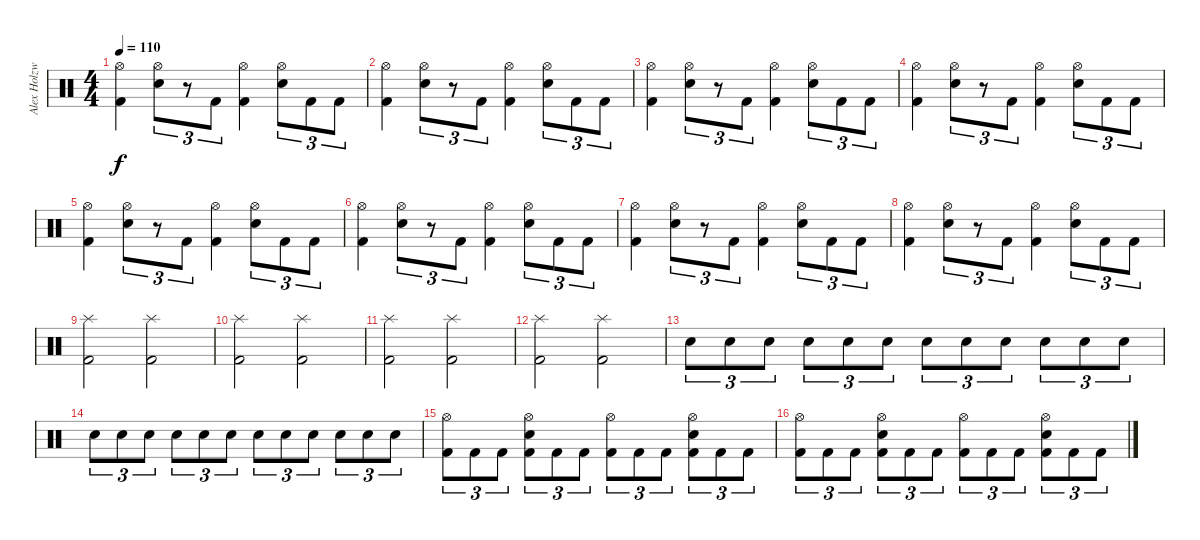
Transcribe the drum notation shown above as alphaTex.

\track ("Alex Holzwarth" "Alex Holzw") {instrument percussion}
\staff {score}
\articulation defaults
\ts (4 4)
\tempo 110
\clef neutral
\ks c
("Hi-Hat (open)" "Kick (hit) 2").4{dy f} ("Hi-Hat (open)" "Snare (hit) 2").8{tu (3 2)} r.8{tu (3 2)} "Kick (hit) 2".8{tu (3 2)} ("Hi-Hat (open)" "Kick (hit) 2").4 ("Hi-Hat (open)" "Snare (hit) 2").8{tu (3 2)} "Kick (hit) 2".8{tu (3 2)} "Kick (hit) 2".8{tu (3 2)} |
("Hi-Hat (open)" "Kick (hit) 2").4 ("Hi-Hat (open)" "Snare (hit) 2").8{tu (3 2)} r.8{tu (3 2)} "Kick (hit) 2".8{tu (3 2)} ("Hi-Hat (open)" "Kick (hit) 2").4 ("Hi-Hat (open)" "Snare (hit) 2").8{tu (3 2)} "Kick (hit) 2".8{tu (3 2)} "Kick (hit) 2".8{tu (3 2)} |
("Hi-Hat (open)" "Kick (hit) 2").4 ("Hi-Hat (open)" "Snare (hit) 2").8{tu (3 2)} r.8{tu (3 2)} "Kick (hit) 2".8{tu (3 2)} ("Hi-Hat (open)" "Kick (hit) 2").4 ("Hi-Hat (open)" "Snare (hit) 2").8{tu (3 2)} "Kick (hit) 2".8{tu (3 2)} "Kick (hit) 2".8{tu (3 2)} |
("Hi-Hat (open)" "Kick (hit) 2").4 ("Hi-Hat (open)" "Snare (hit) 2").8{tu (3 2)} r.8{tu (3 2)} "Kick (hit) 2".8{tu (3 2)} ("Hi-Hat (open)" "Kick (hit) 2").4 ("Hi-Hat (open)" "Snare (hit) 2").8{tu (3 2)} "Kick (hit) 2".8{tu (3 2)} "Kick (hit) 2".8{tu (3 2)} |
("Hi-Hat (open)" "Kick (hit) 2").4 ("Hi-Hat (open)" "Snare (hit) 2").8{tu (3 2)} r.8{tu (3 2)} "Kick (hit) 2".8{tu (3 2)} ("Hi-Hat (open)" "Kick (hit) 2").4 ("Hi-Hat (open)" "Snare (hit) 2").8{tu (3 2)} "Kick (hit) 2".8{tu (3 2)} "Kick (hit) 2".8{tu (3 2)} |
("Hi-Hat (open)" "Kick (hit) 2").4 ("Hi-Hat (open)" "Snare (hit) 2").8{tu (3 2)} r.8{tu (3 2)} "Kick (hit) 2".8{tu (3 2)} ("Hi-Hat (open)" "Kick (hit) 2").4 ("Hi-Hat (open)" "Snare (hit) 2").8{tu (3 2)} "Kick (hit) 2".8{tu (3 2)} "Kick (hit) 2".8{tu (3 2)} |
("Hi-Hat (open)" "Kick (hit) 2").4 ("Hi-Hat (open)" "Snare (hit) 2").8{tu (3 2)} r.8{tu (3 2)} "Kick (hit) 2".8{tu (3 2)} ("Hi-Hat (open)" "Kick (hit) 2").4 ("Hi-Hat (open)" "Snare (hit) 2").8{tu (3 2)} "Kick (hit) 2".8{tu (3 2)} "Kick (hit) 2".8{tu (3 2)} |
("Hi-Hat (open)" "Kick (hit) 2").4 ("Hi-Hat (open)" "Snare (hit) 2").8{tu (3 2)} r.8{tu (3 2)} "Kick (hit) 2".8{tu (3 2)} ("Hi-Hat (open)" "Kick (hit) 2").4 ("Hi-Hat (open)" "Snare (hit) 2").8{tu (3 2)} "Kick (hit) 2".8{tu (3 2)} "Kick (hit) 2".8{tu (3 2)} |
("Splash (hit)" "Kick (hit) 2").2 ("Splash (hit)" "Kick (hit) 2").2 |
("Splash (hit)" "Kick (hit) 2").2 ("Splash (hit)" "Kick (hit) 2").2 |
("Splash (hit)" "Kick (hit) 2").2 ("Splash (hit)" "Kick (hit) 2").2 |
("Splash (hit)" "Kick (hit) 2").2 ("Splash (hit)" "Kick (hit) 2").2 |
"Snare (hit) 2".8{tu (3 2) volume 4} "Snare (hit) 2".8{tu (3 2) volume 13} "Snare (hit) 2".8{tu (3 2)} "Snare (hit) 2".8{tu (3 2)} "Snare (hit) 2".8{tu (3 2)} "Snare (hit) 2".8{tu (3 2)} "Snare (hit) 2".8{tu (3 2)} "Snare (hit) 2".8{tu (3 2)} "Snare (hit) 2".8{tu (3 2)} "Snare (hit) 2".8{tu (3 2)} "Snare (hit) 2".8{tu (3 2)} "Snare (hit) 2".8{tu (3 2)} |
"Snare (hit) 2".8{tu (3 2)} "Snare (hit) 2".8{tu (3 2)} "Snare (hit) 2".8{tu (3 2)} "Snare (hit) 2".8{tu (3 2)} "Snare (hit) 2".8{tu (3 2)} "Snare (hit) 2".8{tu (3 2)} "Snare (hit) 2".8{tu (3 2)} "Snare (hit) 2".8{tu (3 2)} "Snare (hit) 2".8{tu (3 2)} "Snare (hit) 2".8{tu (3 2)} "Snare (hit) 2".8{tu (3 2)} "Snare (hit) 2".8{tu (3 2)} |
("Hi-Hat (open)" "Kick (hit) 2").8{tu (3 2)} "Kick (hit) 2".8{tu (3 2)} "Kick (hit) 2".8{tu (3 2)} ("Hi-Hat (open)" "Snare (hit) 2" "Kick (hit) 2").8{tu (3 2)} "Kick (hit) 2".8{tu (3 2)} "Kick (hit) 2".8{tu (3 2)} ("Hi-Hat (open)" "Kick (hit) 2").8{tu (3 2)} "Kick (hit) 2".8{tu (3 2)} "Kick (hit) 2".8{tu (3 2)} ("Hi-Hat (open)" "Snare (hit) 2" "Kick (hit) 2").8{tu (3 2)} "Kick (hit) 2".8{tu (3 2)} "Kick (hit) 2".8{tu (3 2)} |
("Hi-Hat (open)" "Kick (hit) 2").8{tu (3 2)} "Kick (hit) 2".8{tu (3 2)} "Kick (hit) 2".8{tu (3 2)} ("Hi-Hat (open)" "Snare (hit) 2" "Kick (hit) 2").8{tu (3 2)} "Kick (hit) 2".8{tu (3 2)} "Kick (hit) 2".8{tu (3 2)} ("Hi-Hat (open)" "Kick (hit) 2").8{tu (3 2)} "Kick (hit) 2".8{tu (3 2)} "Kick (hit) 2".8{tu (3 2)} ("Hi-Hat (open)" "Snare (hit) 2" "Kick (hit) 2").8{tu (3 2)} "Kick (hit) 2".8{tu (3 2)} "Kick (hit) 2".8{tu (3 2)}
